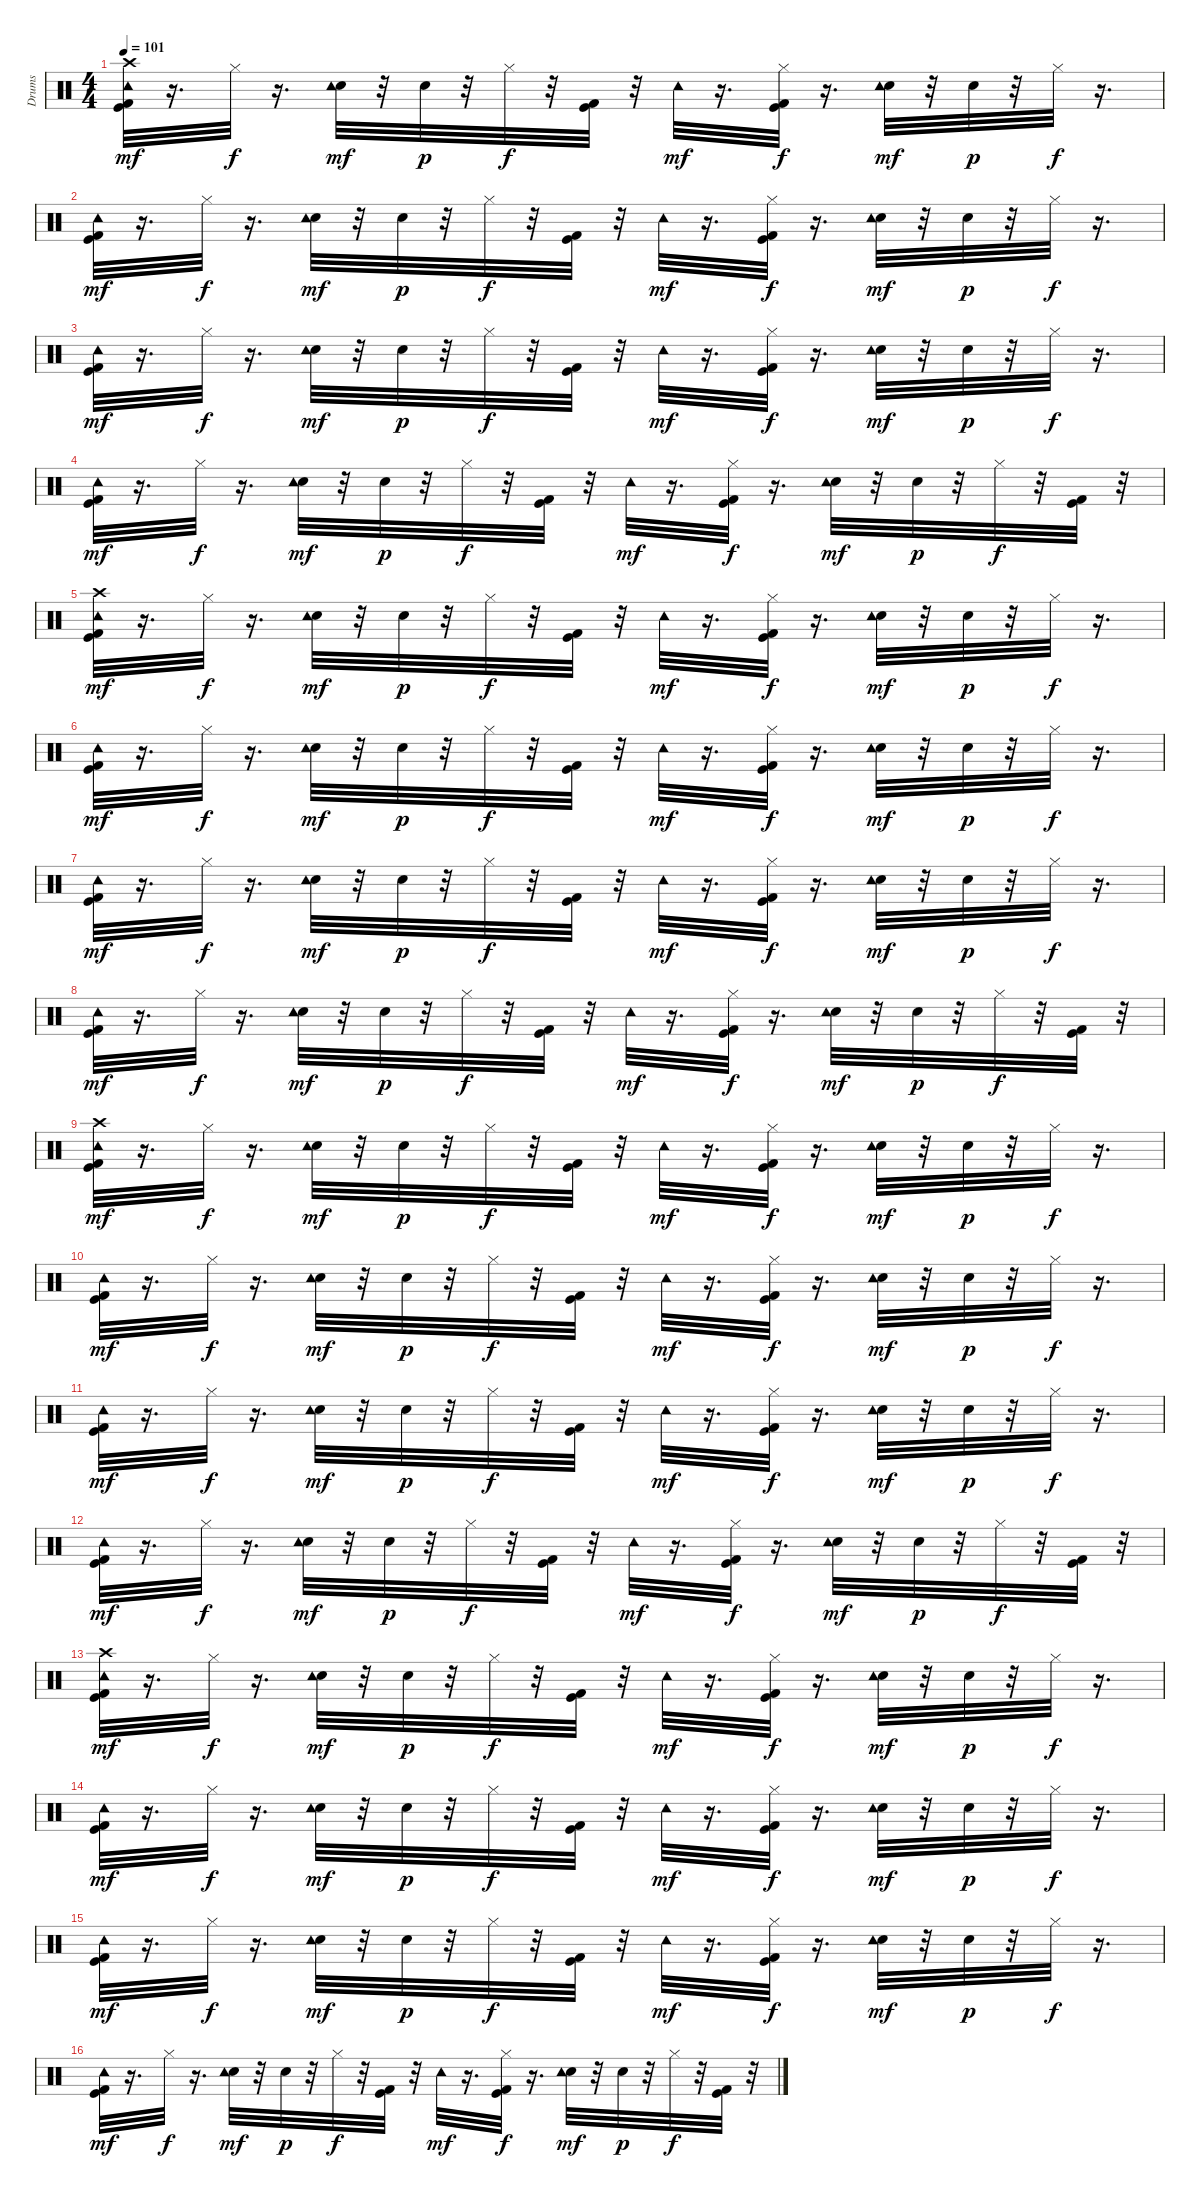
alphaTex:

\track ("Drums" "Drums") {instrument percussion}
\staff {score}
\articulation defaults
\ts (4 4)
\tempo 101
\clef neutral
\ks c
("Kick (hit)" "Kick (hit) 2" "Crash high (hit)" "Tambourine (hit)").32{dy mf} r.16{d} "Hi-Hat (closed)".32{dy f} r.16{d} ("Hand Clap (hit)" "Tambourine (hit)").32{dy mf} r.32 "Hand Clap (hit)".32{dy p} r.32 "Hi-Hat (closed)".32{dy f} r.32 ("Kick (hit)" "Kick (hit) 2").32 r.32 "Tambourine (hit)".32{dy mf} r.16{d} ("Kick (hit)" "Kick (hit) 2" "Hi-Hat (closed)").32{dy f} r.16{d} ("Hand Clap (hit)" "Tambourine (hit)").32{dy mf} r.32 "Hand Clap (hit)".32{dy p} r.32 "Hi-Hat (closed)".32{dy f} r.16{d} |
("Kick (hit)" "Kick (hit) 2" "Tambourine (hit)").32{dy mf} r.16{d} "Hi-Hat (closed)".32{dy f} r.16{d} ("Hand Clap (hit)" "Tambourine (hit)").32{dy mf} r.32 "Hand Clap (hit)".32{dy p} r.32 "Hi-Hat (closed)".32{dy f} r.32 ("Kick (hit)" "Kick (hit) 2").32 r.32 "Tambourine (hit)".32{dy mf} r.16{d} ("Kick (hit)" "Kick (hit) 2" "Hi-Hat (closed)").32{dy f} r.16{d} ("Hand Clap (hit)" "Tambourine (hit)").32{dy mf} r.32 "Hand Clap (hit)".32{dy p} r.32 "Hi-Hat (closed)".32{dy f} r.16{d} |
("Kick (hit)" "Kick (hit) 2" "Tambourine (hit)").32{dy mf} r.16{d} "Hi-Hat (closed)".32{dy f} r.16{d} ("Hand Clap (hit)" "Tambourine (hit)").32{dy mf} r.32 "Hand Clap (hit)".32{dy p} r.32 "Hi-Hat (closed)".32{dy f} r.32 ("Kick (hit)" "Kick (hit) 2").32 r.32 "Tambourine (hit)".32{dy mf} r.16{d} ("Kick (hit)" "Kick (hit) 2" "Hi-Hat (closed)").32{dy f} r.16{d} ("Hand Clap (hit)" "Tambourine (hit)").32{dy mf} r.32 "Hand Clap (hit)".32{dy p} r.32 "Hi-Hat (closed)".32{dy f} r.16{d} |
("Kick (hit)" "Kick (hit) 2" "Tambourine (hit)").32{dy mf} r.16{d} "Hi-Hat (closed)".32{dy f} r.16{d} ("Hand Clap (hit)" "Tambourine (hit)").32{dy mf} r.32 "Hand Clap (hit)".32{dy p} r.32 "Hi-Hat (closed)".32{dy f} r.32 ("Kick (hit)" "Kick (hit) 2").32 r.32 "Tambourine (hit)".32{dy mf} r.16{d} ("Kick (hit)" "Kick (hit) 2" "Hi-Hat (closed)").32{dy f} r.16{d} ("Hand Clap (hit)" "Tambourine (hit)").32{dy mf} r.32 "Hand Clap (hit)".32{dy p} r.32 "Hi-Hat (closed)".32{dy f} r.32 ("Kick (hit)" "Kick (hit) 2").32 r.32 |
("Kick (hit)" "Kick (hit) 2" "Crash high (hit)" "Tambourine (hit)").32{dy mf} r.16{d} "Hi-Hat (closed)".32{dy f} r.16{d} ("Hand Clap (hit)" "Tambourine (hit)").32{dy mf} r.32 "Hand Clap (hit)".32{dy p} r.32 "Hi-Hat (closed)".32{dy f} r.32 ("Kick (hit)" "Kick (hit) 2").32 r.32 "Tambourine (hit)".32{dy mf} r.16{d} ("Kick (hit)" "Kick (hit) 2" "Hi-Hat (closed)").32{dy f} r.16{d} ("Hand Clap (hit)" "Tambourine (hit)").32{dy mf} r.32 "Hand Clap (hit)".32{dy p} r.32 "Hi-Hat (closed)".32{dy f} r.16{d} |
("Kick (hit)" "Kick (hit) 2" "Tambourine (hit)").32{dy mf} r.16{d} "Hi-Hat (closed)".32{dy f} r.16{d} ("Hand Clap (hit)" "Tambourine (hit)").32{dy mf} r.32 "Hand Clap (hit)".32{dy p} r.32 "Hi-Hat (closed)".32{dy f} r.32 ("Kick (hit)" "Kick (hit) 2").32 r.32 "Tambourine (hit)".32{dy mf} r.16{d} ("Kick (hit)" "Kick (hit) 2" "Hi-Hat (closed)").32{dy f} r.16{d} ("Hand Clap (hit)" "Tambourine (hit)").32{dy mf} r.32 "Hand Clap (hit)".32{dy p} r.32 "Hi-Hat (closed)".32{dy f} r.16{d} |
("Kick (hit)" "Kick (hit) 2" "Tambourine (hit)").32{dy mf} r.16{d} "Hi-Hat (closed)".32{dy f} r.16{d} ("Hand Clap (hit)" "Tambourine (hit)").32{dy mf} r.32 "Hand Clap (hit)".32{dy p} r.32 "Hi-Hat (closed)".32{dy f} r.32 ("Kick (hit)" "Kick (hit) 2").32 r.32 "Tambourine (hit)".32{dy mf} r.16{d} ("Kick (hit)" "Kick (hit) 2" "Hi-Hat (closed)").32{dy f} r.16{d} ("Hand Clap (hit)" "Tambourine (hit)").32{dy mf} r.32 "Hand Clap (hit)".32{dy p} r.32 "Hi-Hat (closed)".32{dy f} r.16{d} |
("Kick (hit)" "Kick (hit) 2" "Tambourine (hit)").32{dy mf} r.16{d} "Hi-Hat (closed)".32{dy f} r.16{d} ("Hand Clap (hit)" "Tambourine (hit)").32{dy mf} r.32 "Hand Clap (hit)".32{dy p} r.32 "Hi-Hat (closed)".32{dy f} r.32 ("Kick (hit)" "Kick (hit) 2").32 r.32 "Tambourine (hit)".32{dy mf} r.16{d} ("Kick (hit)" "Kick (hit) 2" "Hi-Hat (closed)").32{dy f} r.16{d} ("Hand Clap (hit)" "Tambourine (hit)").32{dy mf} r.32 "Hand Clap (hit)".32{dy p} r.32 "Hi-Hat (closed)".32{dy f} r.32 ("Kick (hit)" "Kick (hit) 2").32 r.32 |
("Kick (hit)" "Kick (hit) 2" "Crash high (hit)" "Tambourine (hit)").32{dy mf volume 15} r.16{d} "Hi-Hat (closed)".32{dy f} r.16{d} ("Hand Clap (hit)" "Tambourine (hit)").32{dy mf volume 14} r.32 "Hand Clap (hit)".32{dy p} r.32 "Hi-Hat (closed)".32{dy f} r.32 ("Kick (hit)" "Kick (hit) 2").32 r.32 "Tambourine (hit)".32{dy mf volume 14} r.16{d} ("Kick (hit)" "Kick (hit) 2" "Hi-Hat (closed)").32{dy f} r.16{d} ("Hand Clap (hit)" "Tambourine (hit)").32{dy mf volume 14} r.32 "Hand Clap (hit)".32{dy p} r.32 "Hi-Hat (closed)".32{dy f} r.16{d} |
("Kick (hit)" "Kick (hit) 2" "Tambourine (hit)").32{dy mf volume 14} r.16{d} "Hi-Hat (closed)".32{dy f} r.16{d} ("Hand Clap (hit)" "Tambourine (hit)").32{dy mf volume 14} r.32 "Hand Clap (hit)".32{dy p} r.32 "Hi-Hat (closed)".32{dy f} r.32 ("Kick (hit)" "Kick (hit) 2").32 r.32 "Tambourine (hit)".32{dy mf volume 13} r.16{d} ("Kick (hit)" "Kick (hit) 2" "Hi-Hat (closed)").32{dy f} r.16{d} ("Hand Clap (hit)" "Tambourine (hit)").32{dy mf volume 12} r.32 "Hand Clap (hit)".32{dy p} r.32 "Hi-Hat (closed)".32{dy f} r.16{d} |
("Kick (hit)" "Kick (hit) 2" "Tambourine (hit)").32{dy mf volume 12} r.16{d} "Hi-Hat (closed)".32{dy f} r.16{d} ("Hand Clap (hit)" "Tambourine (hit)").32{dy mf volume 12} r.32 "Hand Clap (hit)".32{dy p} r.32 "Hi-Hat (closed)".32{dy f} r.32 ("Kick (hit)" "Kick (hit) 2").32 r.32 "Tambourine (hit)".32{dy mf volume 11} r.16{d} ("Kick (hit)" "Kick (hit) 2" "Hi-Hat (closed)").32{dy f} r.16{d} ("Hand Clap (hit)" "Tambourine (hit)").32{dy mf volume 10} r.32 "Hand Clap (hit)".32{dy p} r.32 "Hi-Hat (closed)".32{dy f} r.16{d} |
("Kick (hit)" "Kick (hit) 2" "Tambourine (hit)").32{dy mf volume 10} r.16{d} "Hi-Hat (closed)".32{dy f} r.16{d} ("Hand Clap (hit)" "Tambourine (hit)").32{dy mf volume 10} r.32 "Hand Clap (hit)".32{dy p} r.32 "Hi-Hat (closed)".32{dy f} r.32 ("Kick (hit)" "Kick (hit) 2").32 r.32 "Tambourine (hit)".32{dy mf volume 9} r.16{d} ("Kick (hit)" "Kick (hit) 2" "Hi-Hat (closed)").32{dy f} r.16{d} ("Hand Clap (hit)" "Tambourine (hit)").32{dy mf volume 8} r.32 "Hand Clap (hit)".32{dy p} r.32 "Hi-Hat (closed)".32{dy f} r.32 ("Kick (hit)" "Kick (hit) 2").32 r.32 |
("Kick (hit)" "Kick (hit) 2" "Crash high (hit)" "Tambourine (hit)").32{dy mf volume 8} r.16{d} "Hi-Hat (closed)".32{dy f} r.16{d} ("Hand Clap (hit)" "Tambourine (hit)").32{dy mf volume 8} r.32 "Hand Clap (hit)".32{dy p} r.32 "Hi-Hat (closed)".32{dy f} r.32 ("Kick (hit)" "Kick (hit) 2").32 r.32 "Tambourine (hit)".32{dy mf volume 7} r.16{d} ("Kick (hit)" "Kick (hit) 2" "Hi-Hat (closed)").32{dy f} r.16{d} ("Hand Clap (hit)" "Tambourine (hit)").32{dy mf volume 6} r.32 "Hand Clap (hit)".32{dy p} r.32 "Hi-Hat (closed)".32{dy f} r.16{d} |
("Kick (hit)" "Kick (hit) 2" "Tambourine (hit)").32{dy mf volume 6} r.16{d} "Hi-Hat (closed)".32{dy f} r.16{d} ("Hand Clap (hit)" "Tambourine (hit)").32{dy mf volume 6} r.32 "Hand Clap (hit)".32{dy p} r.32 "Hi-Hat (closed)".32{dy f} r.32 ("Kick (hit)" "Kick (hit) 2").32 r.32 "Tambourine (hit)".32{dy mf volume 5} r.16{d} ("Kick (hit)" "Kick (hit) 2" "Hi-Hat (closed)").32{dy f} r.16{d} ("Hand Clap (hit)" "Tambourine (hit)").32{dy mf volume 4} r.32 "Hand Clap (hit)".32{dy p} r.32 "Hi-Hat (closed)".32{dy f} r.16{d} |
("Kick (hit)" "Kick (hit) 2" "Tambourine (hit)").32{dy mf volume 4} r.16{d} "Hi-Hat (closed)".32{dy f} r.16{d} ("Hand Clap (hit)" "Tambourine (hit)").32{dy mf volume 4} r.32 "Hand Clap (hit)".32{dy p} r.32 "Hi-Hat (closed)".32{dy f} r.32 ("Kick (hit)" "Kick (hit) 2").32 r.32 "Tambourine (hit)".32{dy mf volume 3} r.16{d} ("Kick (hit)" "Kick (hit) 2" "Hi-Hat (closed)").32{dy f} r.16{d} ("Hand Clap (hit)" "Tambourine (hit)").32{dy mf volume 2} r.32 "Hand Clap (hit)".32{dy p} r.32 "Hi-Hat (closed)".32{dy f} r.16{d} |
("Kick (hit)" "Kick (hit) 2" "Tambourine (hit)").32{dy mf volume 2} r.16{d} "Hi-Hat (closed)".32{dy f} r.16{d} ("Hand Clap (hit)" "Tambourine (hit)").32{dy mf volume 2} r.32 "Hand Clap (hit)".32{dy p} r.32 "Hi-Hat (closed)".32{dy f} r.32 ("Kick (hit)" "Kick (hit) 2").32 r.32 "Tambourine (hit)".32{dy mf volume 1} r.16{d} ("Kick (hit)" "Kick (hit) 2" "Hi-Hat (closed)").32{dy f} r.16{d} ("Hand Clap (hit)" "Tambourine (hit)").32{dy mf volume 0} r.32 "Hand Clap (hit)".32{dy p} r.32 "Hi-Hat (closed)".32{dy f} r.32 ("Kick (hit)" "Kick (hit) 2").32 r.32
